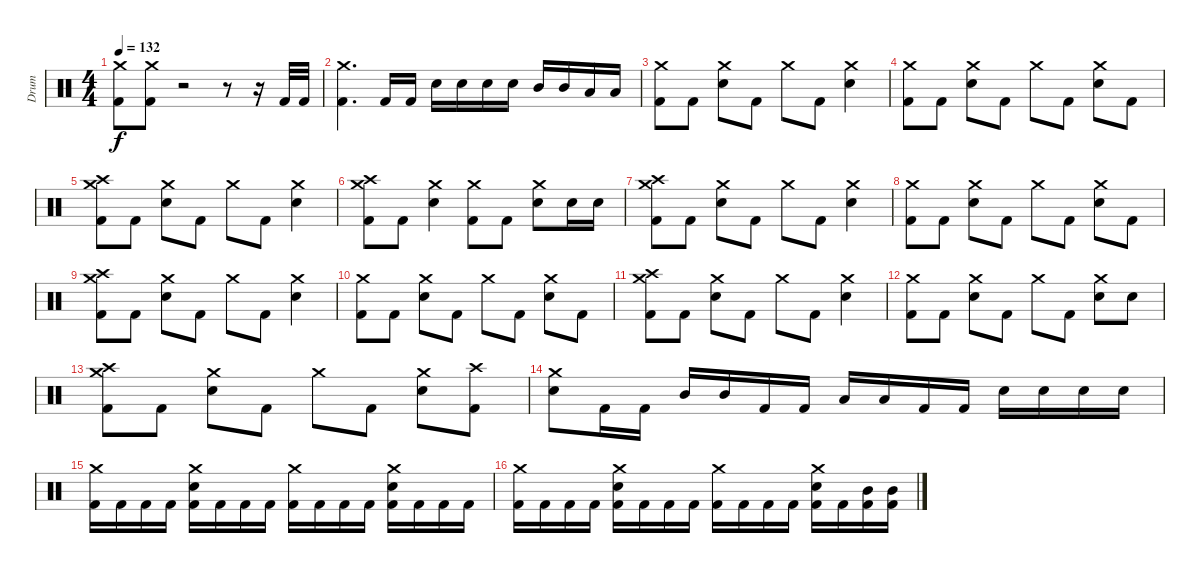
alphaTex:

\track ("Drum" "Drum") {instrument percussion}
\staff {score}
\articulation defaults
\ts (4 4)
\tempo 132
\clef neutral
\ks c
("Crash medium (hit)" "Kick (hit) 2").8{dy f} ("Crash medium (hit)" "Kick (hit) 2").8 r.2 r.8 r.16 "Kick (hit) 2".32 "Kick (hit) 2".32 |
("Crash medium (hit)" "Kick (hit) 2").4{d} "Kick (hit) 2".16 "Kick (hit) 2".16 "Snare (hit) 2".16 "Snare (hit) 2".16 "Snare (hit) 2".16 "Snare (hit) 2".16 "Mid Tom (hit)".16 "Mid Tom (hit)".16 "Low Tom (hit)".16 "Low Tom (hit)".16 |
("Crash medium (hit)" "Kick (hit) 2").8 "Kick (hit) 2".8 ("Crash medium (hit)" "Snare (hit) 2").8 "Kick (hit) 2".8 "Crash medium (hit)".8 "Kick (hit) 2".8 ("Crash medium (hit)" "Snare (hit) 2").4 |
("Crash medium (hit)" "Kick (hit) 2").8 "Kick (hit) 2".8 ("Crash medium (hit)" "Snare (hit) 2").8 "Kick (hit) 2".8 "Crash medium (hit)".8 "Kick (hit) 2".8 ("Crash medium (hit)" "Snare (hit) 2").8 "Kick (hit) 2".8 |
("Crash medium (hit)" "Crash high (hit)" "Kick (hit) 2").8 "Kick (hit) 2".8 ("Crash medium (hit)" "Snare (hit) 2").8 "Kick (hit) 2".8 "Crash medium (hit)".8 "Kick (hit) 2".8 ("Crash medium (hit)" "Snare (hit) 2").4 |
("Crash medium (hit)" "Crash high (hit)" "Kick (hit) 2").8 "Kick (hit) 2".8 ("Crash medium (hit)" "Snare (hit) 2").4 ("Crash medium (hit)" "Kick (hit) 2").8 "Kick (hit) 2".8 ("Crash medium (hit)" "Snare (hit) 2").8 "Snare (hit) 2".16 "Snare (hit) 2".16 |
("Crash medium (hit)" "Crash high (hit)" "Kick (hit) 2").8 "Kick (hit) 2".8 ("Crash medium (hit)" "Snare (hit) 2").8 "Kick (hit) 2".8 "Crash medium (hit)".8 "Kick (hit) 2".8 ("Crash medium (hit)" "Snare (hit) 2").4 |
("Crash medium (hit)" "Kick (hit) 2").8 "Kick (hit) 2".8 ("Crash medium (hit)" "Snare (hit) 2").8 "Kick (hit) 2".8 "Crash medium (hit)".8 "Kick (hit) 2".8 ("Crash medium (hit)" "Snare (hit) 2").8 "Kick (hit) 2".8 |
("Crash medium (hit)" "Crash high (hit)" "Kick (hit) 2").8 "Kick (hit) 2".8 ("Crash medium (hit)" "Snare (hit) 2").8 "Kick (hit) 2".8 "Crash medium (hit)".8 "Kick (hit) 2".8 ("Crash medium (hit)" "Snare (hit) 2").4 |
("Crash medium (hit)" "Kick (hit) 2").8 "Kick (hit) 2".8 ("Crash medium (hit)" "Snare (hit) 2").8 "Kick (hit) 2".8 "Crash medium (hit)".8 "Kick (hit) 2".8 ("Crash medium (hit)" "Snare (hit) 2").8 "Kick (hit) 2".8 |
("Crash medium (hit)" "Crash high (hit)" "Kick (hit) 2").8 "Kick (hit) 2".8 ("Crash medium (hit)" "Snare (hit) 2").8 "Kick (hit) 2".8 "Crash medium (hit)".8 "Kick (hit) 2".8 ("Crash medium (hit)" "Snare (hit) 2").4 |
("Crash medium (hit)" "Kick (hit) 2").8 "Kick (hit) 2".8 ("Crash medium (hit)" "Snare (hit) 2").8 "Kick (hit) 2".8 "Crash medium (hit)".8 "Kick (hit) 2".8 ("Crash medium (hit)" "Snare (hit) 2").8 "Snare (hit) 2".8 |
("Crash medium (hit)" "Crash high (hit)" "Kick (hit) 2").8 "Kick (hit) 2".8 ("Crash medium (hit)" "Snare (hit) 2").8 "Kick (hit) 2".8 "Crash medium (hit)".8 "Kick (hit) 2".8 ("Crash medium (hit)" "Snare (hit) 2").8 ("Crash high (hit)" "Kick (hit) 2").8 |
("Crash medium (hit)" "Snare (hit) 2").8 "Kick (hit) 2".16 "Kick (hit) 2".16 "Mid Tom (hit)".16 "Mid Tom (hit)".16 "Kick (hit) 2".16 "Kick (hit) 2".16 "Low Tom (hit)".16 "Low Tom (hit)".16 "Kick (hit) 2".16 "Kick (hit) 2".16 "Snare (hit) 2".16 "Snare (hit) 2".16 "Snare (hit) 2".16 "Snare (hit) 2".16 |
("Crash medium (hit)" "Kick (hit) 2").16 "Kick (hit) 2".16 "Kick (hit) 2".16 "Kick (hit) 2".16 ("Crash medium (hit)" "Snare (hit) 2" "Kick (hit) 2").16 "Kick (hit) 2".16 "Kick (hit) 2".16 "Kick (hit) 2".16 ("Crash medium (hit)" "Kick (hit) 2").16 "Kick (hit) 2".16 "Kick (hit) 2".16 "Kick (hit) 2".16 ("Crash medium (hit)" "Snare (hit) 2" "Kick (hit) 2").16 "Kick (hit) 2".16 "Kick (hit) 2".16 "Kick (hit) 2".16 |
("Crash medium (hit)" "Kick (hit) 2").16 "Kick (hit) 2".16 "Kick (hit) 2".16 "Kick (hit) 2".16 ("Crash medium (hit)" "Snare (hit) 2" "Kick (hit) 2").16 "Kick (hit) 2".16 "Kick (hit) 2".16 "Kick (hit) 2".16 ("Crash medium (hit)" "Kick (hit) 2").16 "Kick (hit) 2".16 "Kick (hit) 2".16 "Kick (hit) 2".16 ("Crash medium (hit)" "Snare (hit) 2" "Kick (hit) 2").16 "Kick (hit) 2".16 ("Mid Tom (hit)" "Kick (hit) 2").16 ("Mid Tom (hit)" "Kick (hit) 2").16
